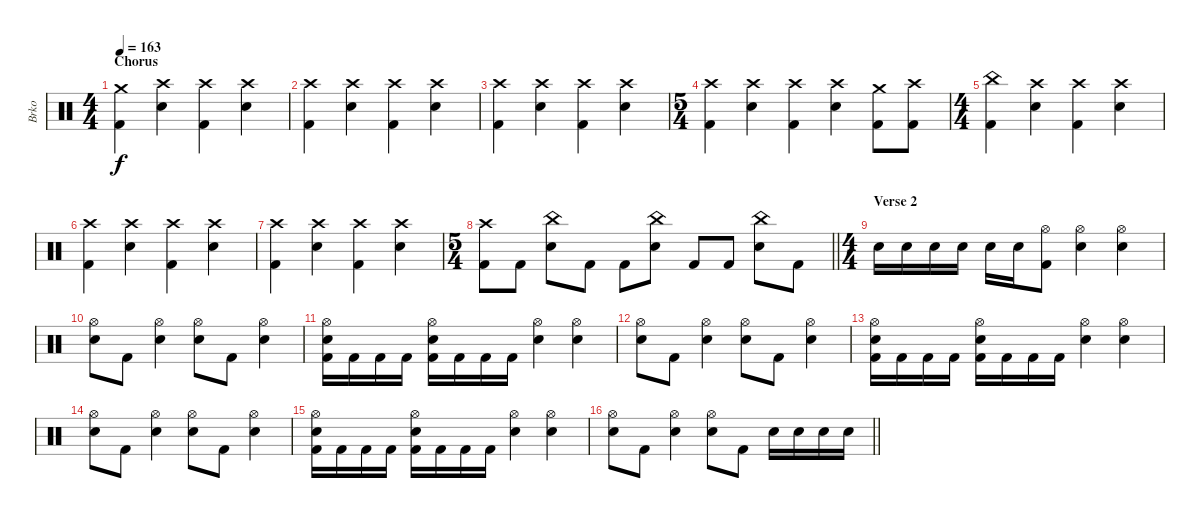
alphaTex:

\track ("Brko" "Brko") {instrument percussion}
\staff {score}
\articulation defaults
\ts (4 4)
\section ("" "Chorus")
\tempo 163
\clef neutral
\ks c
("Crash medium (hit)" "Kick (hit) 2").4{dy f} ("Crash high (hit)" "Electric Snare (hit)").4 ("Crash high (hit)" "Kick (hit) 2").4 ("Crash high (hit)" "Electric Snare (hit)").4 |
("Crash high (hit)" "Kick (hit) 2").4 ("Crash high (hit)" "Electric Snare (hit)").4 ("Crash high (hit)" "Kick (hit) 2").4 ("Crash high (hit)" "Electric Snare (hit)").4 |
("Crash high (hit)" "Kick (hit) 2").4 ("Crash high (hit)" "Electric Snare (hit)").4 ("Crash high (hit)" "Kick (hit) 2").4 ("Crash high (hit)" "Electric Snare (hit)").4 |
\ts (5 4)
("Crash high (hit)" "Kick (hit) 2").4 ("Crash high (hit)" "Electric Snare (hit)").4 ("Crash high (hit)" "Kick (hit) 2").4 ("Crash high (hit)" "Electric Snare (hit)").4 ("Crash medium (hit)" "Kick (hit) 2").8 ("Crash high (hit)" "Kick (hit) 2").8 |
\ts (4 4)
("China (hit)" "Kick (hit) 2").4 ("Crash high (hit)" "Electric Snare (hit)").4 ("Crash high (hit)" "Kick (hit) 2").4 ("Crash high (hit)" "Electric Snare (hit)").4 |
("Crash high (hit)" "Kick (hit) 2").4 ("Crash high (hit)" "Electric Snare (hit)").4 ("Crash high (hit)" "Kick (hit) 2").4 ("Crash high (hit)" "Electric Snare (hit)").4 |
("Crash high (hit)" "Kick (hit) 2").4 ("Crash high (hit)" "Electric Snare (hit)").4 ("Crash high (hit)" "Kick (hit) 2").4 ("Crash high (hit)" "Electric Snare (hit)").4 |
\ts (5 4)
\barLineRight lightlight
("Crash high (hit)" "Kick (hit) 2").8 "Kick (hit) 2".8 ("China (hit)" "Electric Snare (hit)").8 "Kick (hit) 2".8 "Kick (hit) 2".8 ("China (hit)" "Electric Snare (hit)").8 "Kick (hit) 2".8 "Kick (hit) 2".8 ("China (hit)" "Electric Snare (hit)").8 "Kick (hit) 2".8 |
\ts (4 4)
\section ("" "Verse 2")
"Electric Snare (hit)".16 "Electric Snare (hit)".16 "Electric Snare (hit)".16 "Electric Snare (hit)".16 "Electric Snare (hit)".16 "Electric Snare (hit)".16 ("Hi-Hat (open)" "Kick (hit) 2").8 ("Hi-Hat (open)" "Electric Snare (hit)").4 ("Hi-Hat (open)" "Electric Snare (hit)").4 |
("Hi-Hat (open)" "Electric Snare (hit)").8 "Kick (hit) 2".8 ("Hi-Hat (open)" "Electric Snare (hit)").4 ("Hi-Hat (open)" "Electric Snare (hit)").8 "Kick (hit) 2".8 ("Hi-Hat (open)" "Electric Snare (hit)").4 |
("Hi-Hat (open)" "Electric Snare (hit)" "Kick (hit) 2").16 "Kick (hit) 2".16 "Kick (hit) 2".16 "Kick (hit) 2".16 ("Hi-Hat (open)" "Electric Snare (hit)" "Kick (hit) 2").16 "Kick (hit) 2".16 "Kick (hit) 2".16 "Kick (hit) 2".16 ("Hi-Hat (open)" "Electric Snare (hit)").4 ("Hi-Hat (open)" "Electric Snare (hit)").4 |
("Hi-Hat (open)" "Electric Snare (hit)").8 "Kick (hit) 2".8 ("Hi-Hat (open)" "Electric Snare (hit)").4 ("Hi-Hat (open)" "Electric Snare (hit)").8 "Kick (hit) 2".8 ("Hi-Hat (open)" "Electric Snare (hit)").4 |
("Hi-Hat (open)" "Electric Snare (hit)" "Kick (hit) 2").16 "Kick (hit) 2".16 "Kick (hit) 2".16 "Kick (hit) 2".16 ("Hi-Hat (open)" "Electric Snare (hit)" "Kick (hit) 2").16 "Kick (hit) 2".16 "Kick (hit) 2".16 "Kick (hit) 2".16 ("Hi-Hat (open)" "Electric Snare (hit)").4 ("Hi-Hat (open)" "Electric Snare (hit)").4 |
("Hi-Hat (open)" "Electric Snare (hit)").8 "Kick (hit) 2".8 ("Hi-Hat (open)" "Electric Snare (hit)").4 ("Hi-Hat (open)" "Electric Snare (hit)").8 "Kick (hit) 2".8 ("Hi-Hat (open)" "Electric Snare (hit)").4 |
("Hi-Hat (open)" "Electric Snare (hit)" "Kick (hit) 2").16 "Kick (hit) 2".16 "Kick (hit) 2".16 "Kick (hit) 2".16 ("Hi-Hat (open)" "Electric Snare (hit)" "Kick (hit) 2").16 "Kick (hit) 2".16 "Kick (hit) 2".16 "Kick (hit) 2".16 ("Hi-Hat (open)" "Electric Snare (hit)").4 ("Hi-Hat (open)" "Electric Snare (hit)").4 |
\barLineRight lightlight
("Hi-Hat (open)" "Electric Snare (hit)").8 "Kick (hit) 2".8 ("Hi-Hat (open)" "Electric Snare (hit)").4 ("Hi-Hat (open)" "Electric Snare (hit)").8 "Kick (hit) 2".8 "Electric Snare (hit)".16 "Electric Snare (hit)".16 "Electric Snare (hit)".16 "Electric Snare (hit)".16
